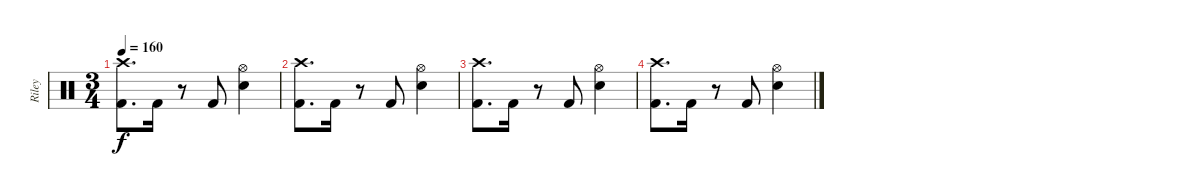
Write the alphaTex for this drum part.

\track ("Riley" "Riley") {instrument percussion}
\staff {score}
\articulation defaults
\ts (3 4)
\tempo 160
\clef neutral
\ks c
("Crash high (hit)" "Kick (hit) 2").8{d dy f} "Kick (hit) 2".16 r.8 "Kick (hit) 2".8 ("Hi-Hat (open)" "Electric Snare (hit)").4 |
("Crash high (hit)" "Kick (hit) 2").8{d} "Kick (hit) 2".16 r.8 "Kick (hit) 2".8 ("Hi-Hat (open)" "Electric Snare (hit)").4 |
("Crash high (hit)" "Kick (hit) 2").8{d} "Kick (hit) 2".16 r.8 "Kick (hit) 2".8 ("Hi-Hat (open)" "Electric Snare (hit)").4 |
("Crash high (hit)" "Kick (hit) 2").8{d} "Kick (hit) 2".16 r.8 "Kick (hit) 2".8 ("Hi-Hat (open)" "Electric Snare (hit)").4
